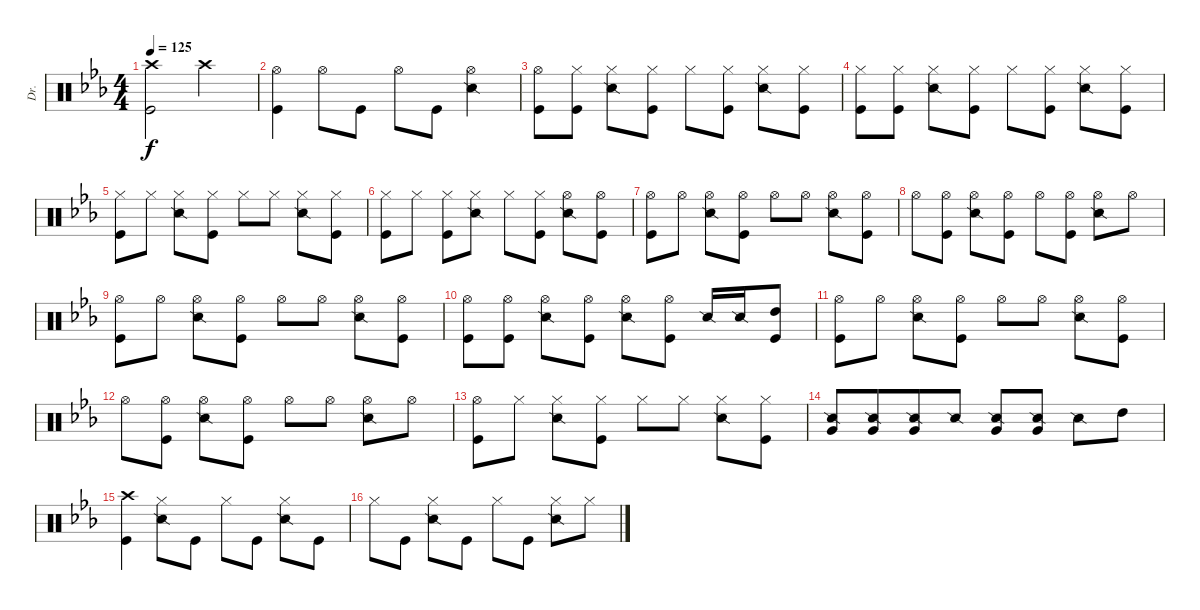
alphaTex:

\track ("Dr." "Dr.") {instrument percussion}
\staff {score}
\articulation defaults
\ts (4 4)
\tempo 125
\clef neutral
\ks eb
("Crash high (hit)" "Kick (hit)").2{dy f} "Crash high (hit)".2 |
("Hi-Hat (open)" "Kick (hit)").4 "Hi-Hat (open)".8 "Kick (hit)".8 "Hi-Hat (open)".8 "Kick (hit)".8 ("Hi-Hat (open)" "Snare (side stick) 2").4 |
("Hi-Hat (open)" "Kick (hit)").8 ("Hi-Hat (closed)" "Kick (hit)").8 ("Hi-Hat (closed)" "Snare (side stick) 2").8 ("Hi-Hat (closed)" "Kick (hit)").8 "Hi-Hat (closed)".8 ("Hi-Hat (closed)" "Kick (hit)").8 ("Hi-Hat (closed)" "Snare (side stick) 2").8 ("Hi-Hat (closed)" "Kick (hit)").8 |
("Hi-Hat (closed)" "Kick (hit)").8 ("Hi-Hat (closed)" "Kick (hit)").8 ("Hi-Hat (closed)" "Snare (side stick) 2").8 ("Hi-Hat (closed)" "Kick (hit)").8 "Hi-Hat (closed)".8 ("Hi-Hat (closed)" "Kick (hit)").8 ("Hi-Hat (closed)" "Snare (side stick) 2").8 ("Hi-Hat (closed)" "Kick (hit)").8 |
("Hi-Hat (closed)" "Kick (hit)").8 "Hi-Hat (closed)".8 ("Hi-Hat (closed)" "Snare (side stick) 2").8 ("Hi-Hat (closed)" "Kick (hit)").8 "Hi-Hat (closed)".8 "Hi-Hat (closed)".8 ("Hi-Hat (closed)" "Snare (side stick) 2").8 ("Hi-Hat (closed)" "Kick (hit)").8 |
("Hi-Hat (closed)" "Kick (hit)").8 "Hi-Hat (closed)".8 ("Hi-Hat (closed)" "Kick (hit)").8 ("Hi-Hat (closed)" "Snare (side stick) 2").8 "Hi-Hat (closed)".8 ("Hi-Hat (closed)" "Kick (hit)").8 ("Hi-Hat (open)" "Snare (side stick) 2").8 ("Hi-Hat (open)" "Kick (hit)").8 |
("Hi-Hat (open)" "Kick (hit)").8 "Hi-Hat (open)".8 ("Hi-Hat (open)" "Snare (side stick) 2").8 ("Hi-Hat (open)" "Kick (hit)").8 "Hi-Hat (open)".8 "Hi-Hat (open)".8 ("Hi-Hat (open)" "Snare (side stick) 2").8 ("Hi-Hat (open)" "Kick (hit)").8 |
"Hi-Hat (open)".8 ("Hi-Hat (open)" "Kick (hit)").8 ("Hi-Hat (open)" "Snare (side stick) 2").8 ("Hi-Hat (open)" "Kick (hit)").8 "Hi-Hat (open)".8 ("Hi-Hat (open)" "Kick (hit)").8 ("Hi-Hat (open)" "Snare (side stick) 2").8 "Hi-Hat (open)".8 |
("Hi-Hat (open)" "Kick (hit)").8 "Hi-Hat (open)".8 ("Hi-Hat (open)" "Snare (side stick) 2").8 ("Hi-Hat (open)" "Kick (hit)").8 "Hi-Hat (open)".8 "Hi-Hat (open)".8 ("Hi-Hat (open)" "Snare (side stick) 2").8 ("Hi-Hat (open)" "Kick (hit)").8 |
("Hi-Hat (open)" "Kick (hit)").8 ("Hi-Hat (open)" "Kick (hit)").8 ("Hi-Hat (open)" "Snare (side stick) 2").8 ("Hi-Hat (open)" "Kick (hit)").8 ("Hi-Hat (open)" "Snare (side stick) 2").8 ("Hi-Hat (open)" "Kick (hit)").8 "Snare (side stick) 2".16 "Snare (side stick) 2".16 ("High Tom (hit)" "Kick (hit)").8 |
("Hi-Hat (open)" "Kick (hit)").8 "Hi-Hat (open)".8 ("Hi-Hat (open)" "Snare (side stick) 2").8 ("Hi-Hat (open)" "Kick (hit)").8 "Hi-Hat (open)".8 "Hi-Hat (open)".8 ("Hi-Hat (open)" "Snare (side stick) 2").8 ("Hi-Hat (open)" "Kick (hit)").8 |
"Hi-Hat (open)".8 ("Hi-Hat (open)" "Kick (hit)").8 ("Hi-Hat (open)" "Snare (side stick) 2").8 ("Hi-Hat (open)" "Kick (hit)").8 "Hi-Hat (open)".8 "Hi-Hat (open)".8 ("Hi-Hat (open)" "Snare (side stick) 2").8 "Hi-Hat (open)".8 |
("Hi-Hat (open)" "Kick (hit)").8 "Hi-Hat (closed)".8 ("Hi-Hat (closed)" "Snare (side stick) 2").8 ("Hi-Hat (closed)" "Kick (hit)").8 "Hi-Hat (closed)".8 "Hi-Hat (closed)".8 ("Hi-Hat (closed)" "Snare (side stick) 2").8 ("Hi-Hat (closed)" "Kick (hit)").8 |
("Snare (side stick) 2" "Very Low Tom (hit)").8 ("Snare (side stick) 2" "Very Low Tom (hit)").8{beam merge} ("Snare (side stick) 2" "Very Low Tom (hit)").8 "Snare (side stick) 2".8 ("Snare (side stick) 2" "Very Low Tom (hit)").8 ("Snare (side stick) 2" "Very Low Tom (hit)").8 "Snare (side stick) 2".8 "High Tom (hit)".8 |
("Crash high (hit)" "Kick (hit)").4 ("Hi-Hat (closed)" "Snare (side stick) 2").8 "Kick (hit)".8 "Hi-Hat (closed)".8 "Kick (hit)".8 ("Hi-Hat (closed)" "Snare (side stick) 2").8 "Kick (hit)".8 |
"Hi-Hat (closed)".8 "Kick (hit)".8 ("Hi-Hat (closed)" "Snare (side stick) 2").8 "Kick (hit)".8 "Hi-Hat (closed)".8 "Kick (hit)".8 ("Hi-Hat (closed)" "Snare (side stick) 2").8 "Hi-Hat (closed)".8
